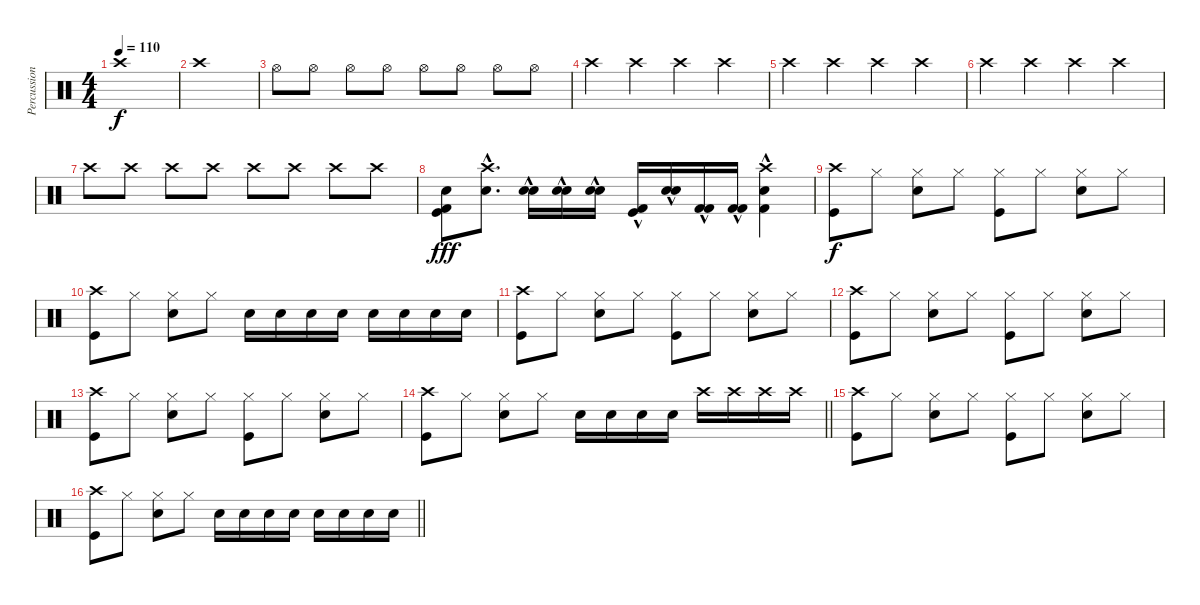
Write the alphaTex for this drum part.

\track ("Percussion" "Percussion") {instrument percussion}
\staff {score}
\articulation defaults
\ts (4 4)
\tempo 110
\clef neutral
\ks c "Crash high (hit)".1{dy f}
|
"Crash high (hit)".1 |
"Hi-Hat (open)".8 "Hi-Hat (open)".8 "Hi-Hat (open)".8 "Hi-Hat (open)".8 "Hi-Hat (open)".8 "Hi-Hat (open)".8 "Hi-Hat (open)".8 "Hi-Hat (open)".8 |
"Crash high (hit)".4 "Crash high (hit)".4 "Crash high (hit)".4 "Crash high (hit)".4 |
"Crash high (hit)".4 "Crash high (hit)".4 "Crash high (hit)".4 "Crash high (hit)".4 |
"Crash high (hit)".4 "Crash high (hit)".4 "Crash high (hit)".4 "Crash high (hit)".4 |
"Crash high (hit)".8 "Crash high (hit)".8 "Crash high (hit)".8 "Crash high (hit)".8 "Crash high (hit)".8 "Crash high (hit)".8 "Crash high (hit)".8 "Crash high (hit)".8 |
("Kick (hit) 2" "Electric Snare (hit)" "Kick (hit)").8{dy fff} ("Crash high (hit)"{hac} "Snare (hit) 2"{hac}).8{d} ("Electric Snare (hit)"{hac} "Snare (hit) 2"{hac}).16 ("Electric Snare (hit)"{hac} "Snare (hit) 2"{hac}).16 ("Electric Snare (hit)"{hac} "Snare (hit) 2"{hac}).16 ("Kick (hit)"{hac} "Kick (hit) 2"{hac}).16 ("Electric Snare (hit)"{hac} "Snare (hit) 2"{hac}).16 ("Kick (hit) 2"{hac} "Kick (hit) 2"{hac}).16 ("Kick (hit) 2"{hac} "Kick (hit) 2"{hac}).16 ("Crash high (hit)" "Kick (hit) 2"{hac} "Snare (hit) 2"{hac}).4 |
("Crash high (hit)" "Kick (hit)").8{dy f} "Hi-Hat (closed)".8 ("Hi-Hat (closed)" "Electric Snare (hit)").8 "Hi-Hat (closed)".8 ("Hi-Hat (closed)" "Kick (hit)").8 "Hi-Hat (closed)".8 ("Hi-Hat (closed)" "Electric Snare (hit)").8 "Hi-Hat (closed)".8 |
("Crash high (hit)" "Kick (hit)").8 "Hi-Hat (closed)".8 ("Hi-Hat (closed)" "Electric Snare (hit)").8 "Hi-Hat (closed)".8 "Electric Snare (hit)".16 "Electric Snare (hit)".16 "Electric Snare (hit)".16 "Electric Snare (hit)".16 "Electric Snare (hit)".16 "Electric Snare (hit)".16 "Electric Snare (hit)".16 "Electric Snare (hit)".16 |
("Crash high (hit)" "Kick (hit)").8 "Hi-Hat (closed)".8 ("Hi-Hat (closed)" "Electric Snare (hit)").8 "Hi-Hat (closed)".8 ("Hi-Hat (closed)" "Kick (hit)").8 "Hi-Hat (closed)".8 ("Hi-Hat (closed)" "Electric Snare (hit)").8 "Hi-Hat (closed)".8 |
("Crash high (hit)" "Kick (hit)").8 "Hi-Hat (closed)".8 ("Hi-Hat (closed)" "Electric Snare (hit)").8 "Hi-Hat (closed)".8 ("Hi-Hat (closed)" "Kick (hit)").8 "Hi-Hat (closed)".8 ("Hi-Hat (closed)" "Electric Snare (hit)").8 "Hi-Hat (closed)".8 |
("Crash high (hit)" "Kick (hit)").8 "Hi-Hat (closed)".8 ("Hi-Hat (closed)" "Electric Snare (hit)").8 "Hi-Hat (closed)".8 ("Hi-Hat (closed)" "Kick (hit)").8 "Hi-Hat (closed)".8 ("Hi-Hat (closed)" "Electric Snare (hit)").8 "Hi-Hat (closed)".8 |
\barLineRight lightlight
("Crash high (hit)" "Kick (hit)").8 "Hi-Hat (closed)".8 ("Hi-Hat (closed)" "Electric Snare (hit)").8 "Hi-Hat (closed)".8 "Electric Snare (hit)".16 "Electric Snare (hit)".16 "Electric Snare (hit)".16 "Electric Snare (hit)".16 "Crash high (hit)".16 "Crash high (hit)".16 "Crash high (hit)".16 "Crash high (hit)".16 |
\section ("" "")
("Crash high (hit)" "Kick (hit)").8 "Hi-Hat (closed)".8 ("Hi-Hat (closed)" "Electric Snare (hit)").8 "Hi-Hat (closed)".8 ("Hi-Hat (closed)" "Kick (hit)").8 "Hi-Hat (closed)".8 ("Hi-Hat (closed)" "Electric Snare (hit)").8 "Hi-Hat (closed)".8 |
\barLineRight lightlight
("Crash high (hit)" "Kick (hit)").8 "Hi-Hat (closed)".8 ("Hi-Hat (closed)" "Electric Snare (hit)").8 "Hi-Hat (closed)".8 "Electric Snare (hit)".16 "Electric Snare (hit)".16 "Electric Snare (hit)".16 "Electric Snare (hit)".16 "Electric Snare (hit)".16 "Electric Snare (hit)".16 "Electric Snare (hit)".16 "Electric Snare (hit)".16
